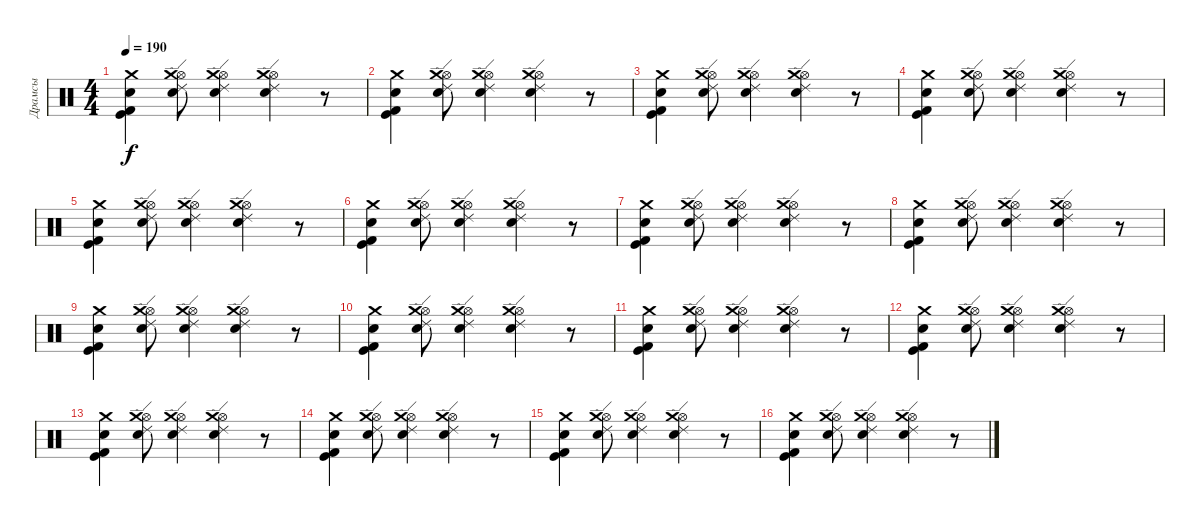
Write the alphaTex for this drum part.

\track ("Драмсы" "Драмсы") {instrument percussion}
\staff {score}
\articulation defaults
\ts (4 4)
\tempo 190
\clef neutral
\ks c
("Kick (hit)" "Kick (hit) 2" "Snare (hit) 2" "Crash medium (hit)").4{dy f} ("Hi-Hat (open)" "Crash medium (hit)" "Ride (edge) 2" "Snare (hit) 2").8 ("Hi-Hat (open)" "Crash medium (hit)" "Ride (edge) 2" "Snare (hit) 2").4 ("Hi-Hat (open)" "Crash medium (hit)" "Ride (edge) 2" "Snare (hit) 2").4 r.8 |
("Kick (hit)" "Kick (hit) 2" "Snare (hit) 2" "Crash medium (hit)").4 ("Hi-Hat (open)" "Crash medium (hit)" "Ride (edge) 2" "Snare (hit) 2").8 ("Hi-Hat (open)" "Crash medium (hit)" "Ride (edge) 2" "Snare (hit) 2").4 ("Hi-Hat (open)" "Crash medium (hit)" "Ride (edge) 2" "Snare (hit) 2").4 r.8 |
("Kick (hit)" "Kick (hit) 2" "Snare (hit) 2" "Crash medium (hit)").4 ("Hi-Hat (open)" "Crash medium (hit)" "Ride (edge) 2" "Snare (hit) 2").8 ("Hi-Hat (open)" "Crash medium (hit)" "Ride (edge) 2" "Snare (hit) 2").4 ("Hi-Hat (open)" "Crash medium (hit)" "Ride (edge) 2" "Snare (hit) 2").4 r.8 |
("Kick (hit)" "Kick (hit) 2" "Snare (hit) 2" "Crash medium (hit)").4 ("Hi-Hat (open)" "Crash medium (hit)" "Ride (edge) 2" "Snare (hit) 2").8 ("Hi-Hat (open)" "Crash medium (hit)" "Ride (edge) 2" "Snare (hit) 2").4 ("Hi-Hat (open)" "Crash medium (hit)" "Ride (edge) 2" "Snare (hit) 2").4 r.8 |
("Kick (hit)" "Kick (hit) 2" "Snare (hit) 2" "Crash medium (hit)").4 ("Hi-Hat (open)" "Crash medium (hit)" "Ride (edge) 2" "Snare (hit) 2").8 ("Hi-Hat (open)" "Crash medium (hit)" "Ride (edge) 2" "Snare (hit) 2").4 ("Hi-Hat (open)" "Crash medium (hit)" "Ride (edge) 2" "Snare (hit) 2").4 r.8 |
("Kick (hit)" "Kick (hit) 2" "Snare (hit) 2" "Crash medium (hit)").4 ("Hi-Hat (open)" "Crash medium (hit)" "Ride (edge) 2" "Snare (hit) 2").8 ("Hi-Hat (open)" "Crash medium (hit)" "Ride (edge) 2" "Snare (hit) 2").4 ("Hi-Hat (open)" "Crash medium (hit)" "Ride (edge) 2" "Snare (hit) 2").4 r.8 |
("Kick (hit)" "Kick (hit) 2" "Snare (hit) 2" "Crash medium (hit)").4 ("Hi-Hat (open)" "Crash medium (hit)" "Ride (edge) 2" "Snare (hit) 2").8 ("Hi-Hat (open)" "Crash medium (hit)" "Ride (edge) 2" "Snare (hit) 2").4 ("Hi-Hat (open)" "Crash medium (hit)" "Ride (edge) 2" "Snare (hit) 2").4 r.8 |
("Kick (hit)" "Kick (hit) 2" "Snare (hit) 2" "Crash medium (hit)").4 ("Hi-Hat (open)" "Crash medium (hit)" "Ride (edge) 2" "Snare (hit) 2").8 ("Hi-Hat (open)" "Crash medium (hit)" "Ride (edge) 2" "Snare (hit) 2").4 ("Hi-Hat (open)" "Crash medium (hit)" "Ride (edge) 2" "Snare (hit) 2").4 r.8 |
("Kick (hit)" "Kick (hit) 2" "Snare (hit) 2" "Crash medium (hit)").4 ("Hi-Hat (open)" "Crash medium (hit)" "Ride (edge) 2" "Snare (hit) 2").8 ("Hi-Hat (open)" "Crash medium (hit)" "Ride (edge) 2" "Snare (hit) 2").4 ("Hi-Hat (open)" "Crash medium (hit)" "Ride (edge) 2" "Snare (hit) 2").4 r.8 |
("Kick (hit)" "Kick (hit) 2" "Snare (hit) 2" "Crash medium (hit)").4 ("Hi-Hat (open)" "Crash medium (hit)" "Ride (edge) 2" "Snare (hit) 2").8 ("Hi-Hat (open)" "Crash medium (hit)" "Ride (edge) 2" "Snare (hit) 2").4 ("Hi-Hat (open)" "Crash medium (hit)" "Ride (edge) 2" "Snare (hit) 2").4 r.8 |
("Kick (hit)" "Kick (hit) 2" "Snare (hit) 2" "Crash medium (hit)").4 ("Hi-Hat (open)" "Crash medium (hit)" "Ride (edge) 2" "Snare (hit) 2").8 ("Hi-Hat (open)" "Crash medium (hit)" "Ride (edge) 2" "Snare (hit) 2").4 ("Hi-Hat (open)" "Crash medium (hit)" "Ride (edge) 2" "Snare (hit) 2").4 r.8 |
("Kick (hit)" "Kick (hit) 2" "Snare (hit) 2" "Crash medium (hit)").4 ("Hi-Hat (open)" "Crash medium (hit)" "Ride (edge) 2" "Snare (hit) 2").8 ("Hi-Hat (open)" "Crash medium (hit)" "Ride (edge) 2" "Snare (hit) 2").4 ("Hi-Hat (open)" "Crash medium (hit)" "Ride (edge) 2" "Snare (hit) 2").4 r.8 |
("Kick (hit)" "Kick (hit) 2" "Snare (hit) 2" "Crash medium (hit)").4 ("Hi-Hat (open)" "Crash medium (hit)" "Ride (edge) 2" "Snare (hit) 2").8 ("Hi-Hat (open)" "Crash medium (hit)" "Ride (edge) 2" "Snare (hit) 2").4 ("Hi-Hat (open)" "Crash medium (hit)" "Ride (edge) 2" "Snare (hit) 2").4 r.8 |
("Kick (hit)" "Kick (hit) 2" "Snare (hit) 2" "Crash medium (hit)").4 ("Hi-Hat (open)" "Crash medium (hit)" "Ride (edge) 2" "Snare (hit) 2").8 ("Hi-Hat (open)" "Crash medium (hit)" "Ride (edge) 2" "Snare (hit) 2").4 ("Hi-Hat (open)" "Crash medium (hit)" "Ride (edge) 2" "Snare (hit) 2").4 r.8 |
("Kick (hit)" "Kick (hit) 2" "Snare (hit) 2" "Crash medium (hit)").4 ("Hi-Hat (open)" "Crash medium (hit)" "Ride (edge) 2" "Snare (hit) 2").8 ("Hi-Hat (open)" "Crash medium (hit)" "Ride (edge) 2" "Snare (hit) 2").4 ("Hi-Hat (open)" "Crash medium (hit)" "Ride (edge) 2" "Snare (hit) 2").4 r.8 |
("Kick (hit)" "Kick (hit) 2" "Snare (hit) 2" "Crash medium (hit)").4 ("Hi-Hat (open)" "Crash medium (hit)" "Ride (edge) 2" "Snare (hit) 2").8 ("Hi-Hat (open)" "Crash medium (hit)" "Ride (edge) 2" "Snare (hit) 2").4 ("Hi-Hat (open)" "Crash medium (hit)" "Ride (edge) 2" "Snare (hit) 2").4 r.8
